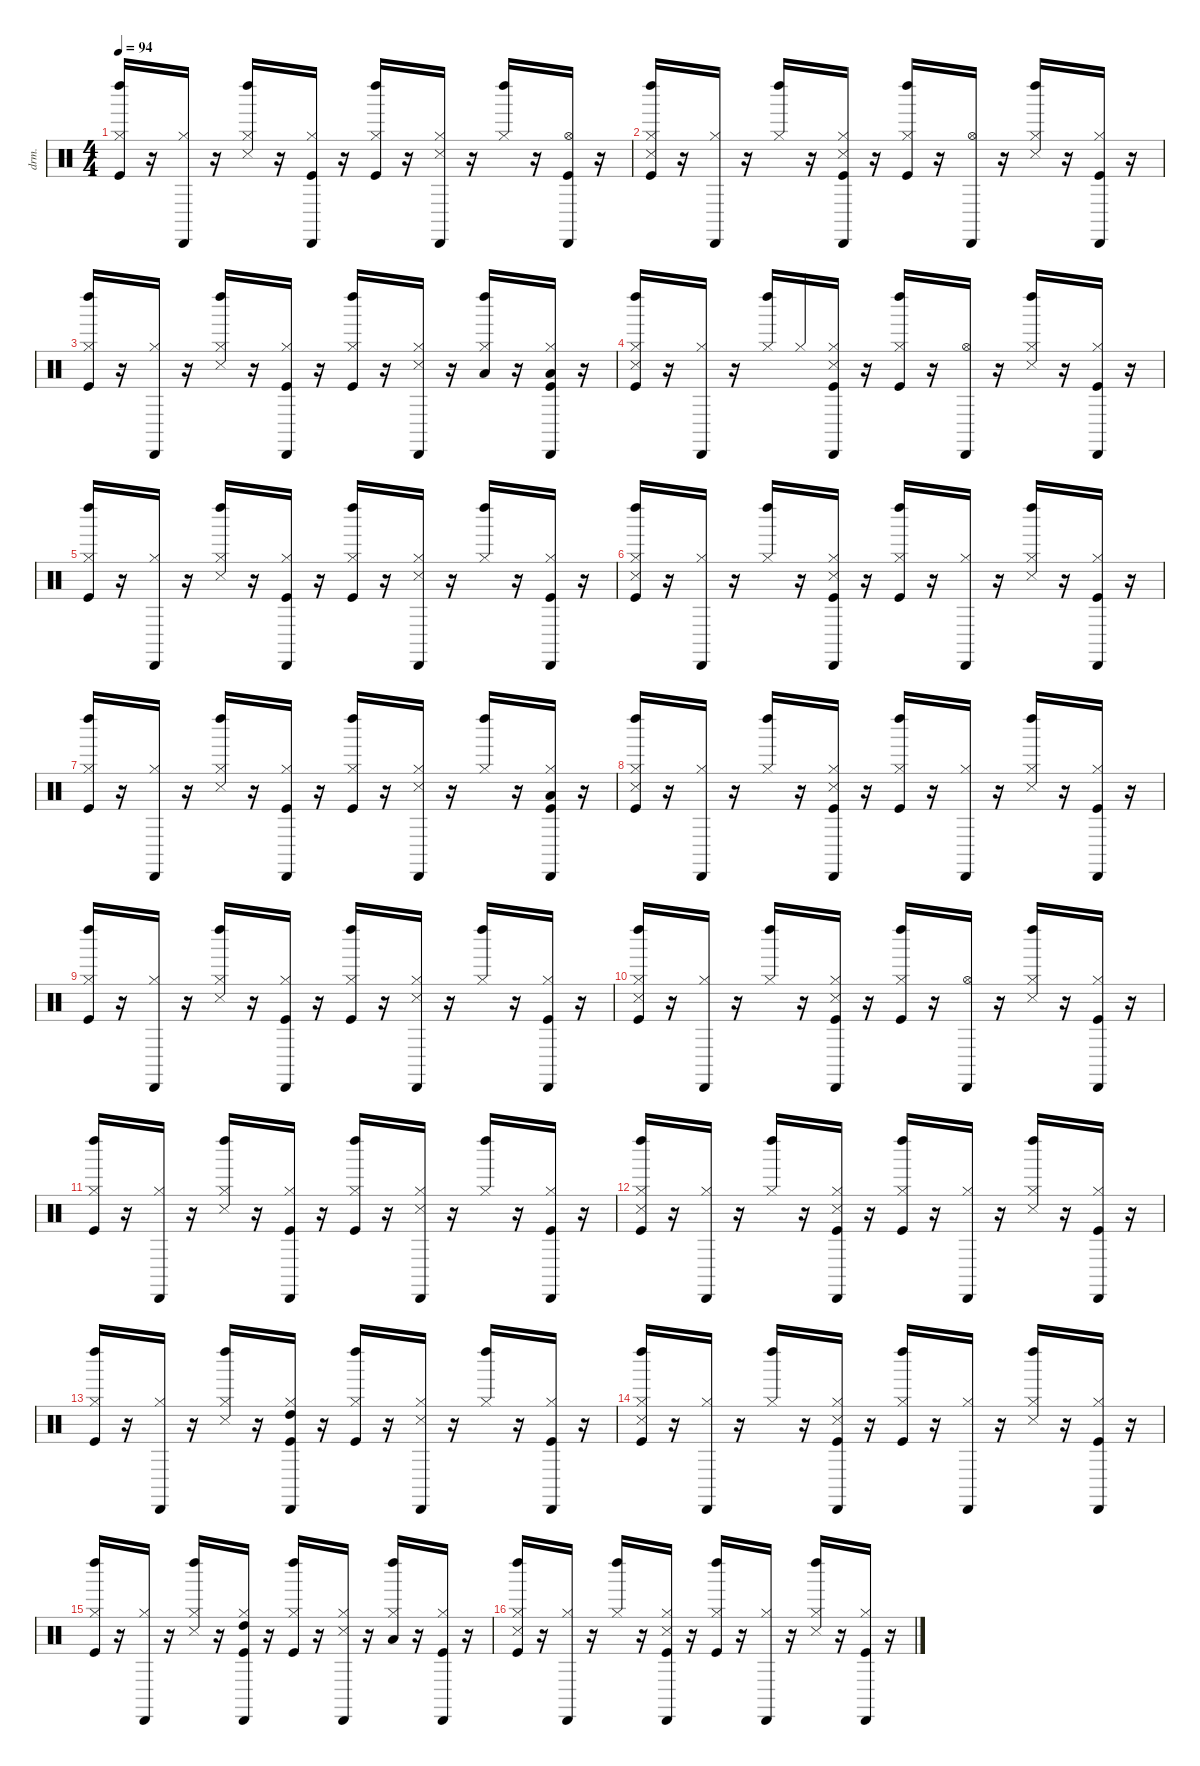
\defaultSystemsLayout 4
\hideDynamics
\bracketExtendMode nobrackets
\otherSystemsTrackNameOrientation horizontal
\track ("Drums" "drm.") {instrument percussion}
\staff {score}
\articulation defaults
\ts (4 4)
\tempo 94
\clef neutral
\ks c
("Left Maraca (hit)" "Hi-Hat (closed)" "Kick (hit)").16{dy mf beam Up} r.16{beam Up} ("Cabasa (hit)" "Hi-Hat (closed)").16{dy p beam Up} r.16{beam Up} ("Left Maraca (hit)" "Hi-Hat (closed)" "Snare (side stick) 3").16{dy mf beam Up} r.16{beam Up} ("Cabasa (hit)" "Hi-Hat (closed)" "Kick (hit)").16{dy p beam Up} r.16{beam Up} ("Left Maraca (hit)" "Hi-Hat (closed)" "Kick (hit)").16{dy mf beam Up} r.16{beam Up} ("Cabasa (hit)" "Hi-Hat (closed)" "Snare (side stick) 3").16{dy p beam Up} r.16{beam Up} ("Left Maraca (hit)" "Hi-Hat (closed)").16{dy mf beam Up} r.16{beam Up} ("Cabasa (hit)" "Hi-Hat (open)" "Kick (hit)").16{dy p beam Up} r.16{beam Up} |
("Left Maraca (hit)" "Hi-Hat (closed)" "Snare (side stick) 3" "Kick (hit)").16{dy mf beam Up} r.16{beam Up} ("Cabasa (hit)" "Hi-Hat (closed)").16{dy p beam Up} r.16{beam Up} ("Left Maraca (hit)" "Hi-Hat (closed)").16{dy mf beam Up} r.16{beam Up} ("Cabasa (hit)" "Hi-Hat (closed)" "Snare (side stick) 3" "Kick (hit)").16{dy p beam Up} r.16{beam Up} ("Left Maraca (hit)" "Hi-Hat (closed)" "Kick (hit)").16{dy mf beam Up} r.16{beam Up} ("Cabasa (hit)" "Hi-Hat (open)").16{dy p beam Up} r.16{beam Up} ("Left Maraca (hit)" "Hi-Hat (closed)" "Snare (side stick) 3").16{dy mf beam Up} r.16{beam Up} ("Cabasa (hit)" "Hi-Hat (closed)" "Kick (hit)").16{dy p beam Up} r.16{beam Up} |
("Left Maraca (hit)" "Hi-Hat (closed)" "Kick (hit)").16{dy mf beam Up} r.16{beam Up} ("Cabasa (hit)" "Hi-Hat (closed)").16{dy p beam Up} r.16{beam Up} ("Left Maraca (hit)" "Hi-Hat (closed)" "Snare (side stick) 3").16{dy mf beam Up} r.16{beam Up} ("Cabasa (hit)" "Hi-Hat (closed)" "Kick (hit)").16{dy p beam Up} r.16{beam Up} ("Left Maraca (hit)" "Hi-Hat (closed)" "Kick (hit)").16{dy mf beam Up} r.16{beam Up} ("Cabasa (hit)" "Hi-Hat (closed)" "Snare (side stick) 3").16{dy p beam Up} r.16{beam Up} ("Left Maraca (hit)" "Low Tom (hit)" "Hi-Hat (closed)").16{dy mf beam Up} r.16{beam Up} ("Cabasa (hit)" "Low Tom (hit)" "Hi-Hat (closed)" "Kick (hit)").16{dy p beam Up} r.16{beam Up} |
("Left Maraca (hit)" "Hi-Hat (closed)" "Snare (side stick) 3" "Kick (hit)").16{dy mf beam Up} r.16{beam Up} ("Cabasa (hit)" "Hi-Hat (closed)").16{dy p beam Up} r.16{beam Up} ("Left Maraca (hit)" "Hi-Hat (closed)").16{dy mf beam Up} "Hi-Hat (closed)".16{beam Up} ("Cabasa (hit)" "Hi-Hat (closed)" "Snare (side stick) 3" "Kick (hit)").16{dy p beam Up} r.16{beam Up} ("Left Maraca (hit)" "Hi-Hat (closed)" "Kick (hit)").16{dy mf beam Up} r.16{beam Up} ("Cabasa (hit)" "Hi-Hat (open)").16{dy p beam Up} r.16{beam Up} ("Left Maraca (hit)" "Hi-Hat (closed)" "Snare (side stick) 3").16{dy mf beam Up} r.16{beam Up} ("Cabasa (hit)" "Hi-Hat (closed)" "Kick (hit)").16{dy p beam Up} r.16{beam Up} |
("Left Maraca (hit)" "Hi-Hat (closed)" "Kick (hit)").16{dy mf beam Up} r.16{beam Up} ("Cabasa (hit)" "Hi-Hat (closed)").16{dy p beam Up} r.16{beam Up} ("Left Maraca (hit)" "Hi-Hat (closed)" "Snare (side stick) 3").16{dy mf beam Up} r.16{beam Up} ("Cabasa (hit)" "Hi-Hat (closed)" "Kick (hit)").16{dy p beam Up} r.16{beam Up} ("Left Maraca (hit)" "Hi-Hat (closed)" "Kick (hit)").16{dy mf beam Up} r.16{beam Up} ("Cabasa (hit)" "Hi-Hat (closed)" "Snare (side stick) 3").16{dy p beam Up} r.16{beam Up} ("Left Maraca (hit)" "Hi-Hat (closed)").16{dy mf beam Up} r.16{beam Up} ("Cabasa (hit)" "Hi-Hat (closed)" "Kick (hit)").16{dy p beam Up} r.16{beam Up} |
("Left Maraca (hit)" "Hi-Hat (closed)" "Snare (side stick) 3" "Kick (hit)").16{dy mf beam Up} r.16{beam Up} ("Cabasa (hit)" "Hi-Hat (closed)").16{dy p beam Up} r.16{beam Up} ("Left Maraca (hit)" "Hi-Hat (closed)").16{dy mf beam Up} r.16{beam Up} ("Cabasa (hit)" "Hi-Hat (closed)" "Snare (side stick) 3" "Kick (hit)").16{dy p beam Up} r.16{beam Up} ("Left Maraca (hit)" "Hi-Hat (closed)" "Kick (hit)").16{dy mf beam Up} r.16{beam Up} ("Cabasa (hit)" "Hi-Hat (closed)").16{dy p beam Up} r.16{beam Up} ("Left Maraca (hit)" "Hi-Hat (closed)" "Snare (side stick) 3").16{dy mf beam Up} r.16{beam Up} ("Cabasa (hit)" "Hi-Hat (closed)" "Kick (hit)").16{dy p beam Up} r.16{beam Up} |
("Left Maraca (hit)" "Hi-Hat (closed)" "Kick (hit)").16{dy mf beam Up} r.16{beam Up} ("Cabasa (hit)" "Hi-Hat (closed)").16{dy p beam Up} r.16{beam Up} ("Left Maraca (hit)" "Hi-Hat (closed)" "Snare (side stick) 3").16{dy mf beam Up} r.16{beam Up} ("Cabasa (hit)" "Hi-Hat (closed)" "Kick (hit)").16{dy p beam Up} r.16{beam Up} ("Left Maraca (hit)" "Hi-Hat (closed)" "Kick (hit)").16{dy mf beam Up} r.16{beam Up} ("Cabasa (hit)" "Hi-Hat (closed)" "Snare (side stick) 3").16{dy p beam Up} r.16{beam Up} ("Left Maraca (hit)" "Hi-Hat (closed)").16{dy mf beam Up} r.16{beam Up} ("Cabasa (hit)" "Low Tom (hit)" "Hi-Hat (closed)" "Kick (hit)").16{dy p beam Up} r.16{beam Up} |
("Left Maraca (hit)" "Hi-Hat (closed)" "Snare (side stick) 3" "Kick (hit)").16{dy mf beam Up} r.16{beam Up} ("Cabasa (hit)" "Hi-Hat (closed)").16{dy p beam Up} r.16{beam Up} ("Left Maraca (hit)" "Hi-Hat (closed)").16{dy mf beam Up} r.16{beam Up} ("Cabasa (hit)" "Hi-Hat (closed)" "Snare (side stick) 3" "Kick (hit)").16{dy p beam Up} r.16{beam Up} ("Left Maraca (hit)" "Hi-Hat (closed)" "Kick (hit)").16{dy mf beam Up} r.16{beam Up} ("Cabasa (hit)" "Hi-Hat (closed)").16{dy p beam Up} r.16{beam Up} ("Left Maraca (hit)" "Hi-Hat (closed)" "Snare (side stick) 3").16{dy mf beam Up} r.16{beam Up} ("Cabasa (hit)" "Hi-Hat (closed)" "Kick (hit)").16{dy p beam Up} r.16{beam Up} |
("Left Maraca (hit)" "Hi-Hat (closed)" "Kick (hit)").16{dy mf beam Up} r.16{beam Up} ("Cabasa (hit)" "Hi-Hat (closed)").16{dy p beam Up} r.16{beam Up} ("Left Maraca (hit)" "Hi-Hat (closed)" "Snare (side stick) 3").16{dy mf beam Up} r.16{beam Up} ("Cabasa (hit)" "Hi-Hat (closed)" "Kick (hit)").16{dy p beam Up} r.16{beam Up} ("Left Maraca (hit)" "Hi-Hat (closed)" "Kick (hit)").16{dy mf beam Up} r.16{beam Up} ("Cabasa (hit)" "Hi-Hat (closed)" "Snare (side stick) 3").16{dy p beam Up} r.16{beam Up} ("Left Maraca (hit)" "Hi-Hat (closed)").16{dy mf beam Up} r.16{beam Up} ("Cabasa (hit)" "Hi-Hat (closed)" "Kick (hit)").16{dy p beam Up} r.16{beam Up} |
("Left Maraca (hit)" "Hi-Hat (closed)" "Snare (side stick) 3" "Kick (hit)").16{dy mf beam Up} r.16{beam Up} ("Cabasa (hit)" "Hi-Hat (closed)").16{dy p beam Up} r.16{beam Up} ("Left Maraca (hit)" "Hi-Hat (closed)").16{dy mf beam Up} r.16{beam Up} ("Cabasa (hit)" "Hi-Hat (closed)" "Snare (side stick) 3" "Kick (hit)").16{dy p beam Up} r.16{beam Up} ("Left Maraca (hit)" "Hi-Hat (closed)" "Kick (hit)").16{dy mf beam Up} r.16{beam Up} ("Cabasa (hit)" "Hi-Hat (open)").16{dy p beam Up} r.16{beam Up} ("Left Maraca (hit)" "Hi-Hat (closed)" "Snare (side stick) 3").16{dy mf beam Up} r.16{beam Up} ("Cabasa (hit)" "Hi-Hat (closed)" "Kick (hit)").16{dy p beam Up} r.16{beam Up} |
("Left Maraca (hit)" "Hi-Hat (closed)" "Kick (hit)").16{dy mf beam Up} r.16{beam Up} ("Cabasa (hit)" "Hi-Hat (closed)").16{dy p beam Up} r.16{beam Up} ("Left Maraca (hit)" "Hi-Hat (closed)" "Snare (side stick) 3").16{dy mf beam Up} r.16{beam Up} ("Cabasa (hit)" "Hi-Hat (closed)" "Kick (hit)").16{dy p beam Up} r.16{beam Up} ("Left Maraca (hit)" "Hi-Hat (closed)" "Kick (hit)").16{dy mf beam Up} r.16{beam Up} ("Cabasa (hit)" "Hi-Hat (closed)" "Snare (side stick) 3").16{dy p beam Up} r.16{beam Up} ("Left Maraca (hit)" "Hi-Hat (closed)").16{dy mf beam Up} r.16{beam Up} ("Cabasa (hit)" "Hi-Hat (closed)" "Kick (hit)").16{dy p beam Up} r.16{beam Up} |
("Left Maraca (hit)" "Hi-Hat (closed)" "Snare (side stick) 3" "Kick (hit)").16{dy mf beam Up} r.16{beam Up} ("Cabasa (hit)" "Hi-Hat (closed)").16{dy p beam Up} r.16{beam Up} ("Left Maraca (hit)" "Hi-Hat (closed)").16{dy mf beam Up} r.16{beam Up} ("Cabasa (hit)" "Hi-Hat (closed)" "Snare (side stick) 3" "Kick (hit)").16{dy p beam Up} r.16{beam Up} ("Left Maraca (hit)" "Hi-Hat (closed)" "Kick (hit)").16{dy mf beam Up} r.16{beam Up} ("Cabasa (hit)" "Hi-Hat (closed)").16{dy p beam Up} r.16{beam Up} ("Left Maraca (hit)" "Hi-Hat (closed)" "Snare (side stick) 3").16{dy mf beam Up} r.16{beam Up} ("Cabasa (hit)" "Hi-Hat (closed)" "Kick (hit)").16{dy p beam Up} r.16{beam Up} |
("Left Maraca (hit)" "Hi-Hat (closed)" "Kick (hit)").16{dy mf beam Up} r.16{beam Up} ("Cabasa (hit)" "Hi-Hat (closed)").16{dy p beam Up} r.16{beam Up} ("Left Maraca (hit)" "Hi-Hat (closed)" "Snare (side stick) 3").16{dy mf beam Up} r.16{beam Up} ("Cabasa (hit)" "High Tom (hit)" "Hi-Hat (closed)" "Kick (hit)").16{dy p beam Up} r.16{beam Up} ("Left Maraca (hit)" "Hi-Hat (closed)" "Kick (hit)").16{dy mf beam Up} r.16{beam Up} ("Cabasa (hit)" "Hi-Hat (closed)" "Snare (side stick) 3").16{dy p beam Up} r.16{beam Up} ("Left Maraca (hit)" "Hi-Hat (closed)").16{dy mf beam Up} r.16{beam Up} ("Cabasa (hit)" "Hi-Hat (closed)" "Kick (hit)").16{dy p beam Up} r.16{beam Up} |
("Left Maraca (hit)" "Hi-Hat (closed)" "Snare (side stick) 3" "Kick (hit)").16{dy mf beam Up} r.16{beam Up} ("Cabasa (hit)" "Hi-Hat (closed)").16{dy p beam Up} r.16{beam Up} ("Left Maraca (hit)" "Hi-Hat (closed)").16{dy mf beam Up} r.16{beam Up} ("Cabasa (hit)" "Hi-Hat (closed)" "Snare (side stick) 3" "Kick (hit)").16{dy p beam Up} r.16{beam Up} ("Left Maraca (hit)" "Hi-Hat (closed)" "Kick (hit)").16{dy mf beam Up} r.16{beam Up} ("Cabasa (hit)" "Hi-Hat (closed)").16{dy p beam Up} r.16{beam Up} ("Left Maraca (hit)" "Hi-Hat (closed)" "Snare (side stick) 3").16{dy mf beam Up} r.16{beam Up} ("Cabasa (hit)" "Hi-Hat (closed)" "Kick (hit)").16{dy p beam Up} r.16{beam Up} |
("Left Maraca (hit)" "Hi-Hat (closed)" "Kick (hit)").16{dy mf beam Up} r.16{beam Up} ("Cabasa (hit)" "Hi-Hat (closed)").16{dy p beam Up} r.16{beam Up} ("Left Maraca (hit)" "Hi-Hat (closed)" "Snare (side stick) 3").16{dy mf beam Up} r.16{beam Up} ("Cabasa (hit)" "High Tom (hit)" "Hi-Hat (closed)" "Kick (hit)").16{dy p beam Up} r.16{beam Up} ("Left Maraca (hit)" "Hi-Hat (closed)" "Kick (hit)").16{dy mf beam Up} r.16{beam Up} ("Cabasa (hit)" "Hi-Hat (closed)" "Snare (side stick) 3").16{dy p beam Up} r.16{beam Up} ("Left Maraca (hit)" "Low Tom (hit)" "Hi-Hat (closed)").16{dy mf beam Up} r.16{beam Up} ("Cabasa (hit)" "Hi-Hat (closed)" "Kick (hit)").16{dy p beam Up} r.16{beam Up} |
("Left Maraca (hit)" "Hi-Hat (closed)" "Snare (side stick) 3" "Kick (hit)").16{dy mf beam Up} r.16{beam Up} ("Cabasa (hit)" "Hi-Hat (closed)").16{dy p beam Up} r.16{beam Up} ("Left Maraca (hit)" "Hi-Hat (closed)").16{dy mf beam Up} r.16{beam Up} ("Cabasa (hit)" "Hi-Hat (closed)" "Snare (side stick) 3" "Kick (hit)").16{dy p beam Up} r.16{beam Up} ("Left Maraca (hit)" "Hi-Hat (closed)" "Kick (hit)").16{dy mf beam Up} r.16{beam Up} ("Cabasa (hit)" "Hi-Hat (closed)").16{dy p beam Up} r.16{beam Up} ("Left Maraca (hit)" "Hi-Hat (closed)" "Snare (side stick) 3").16{dy mf beam Up} r.16{beam Up} ("Cabasa (hit)" "Hi-Hat (closed)" "Kick (hit)").16{dy p beam Up} r.16{beam Up}
